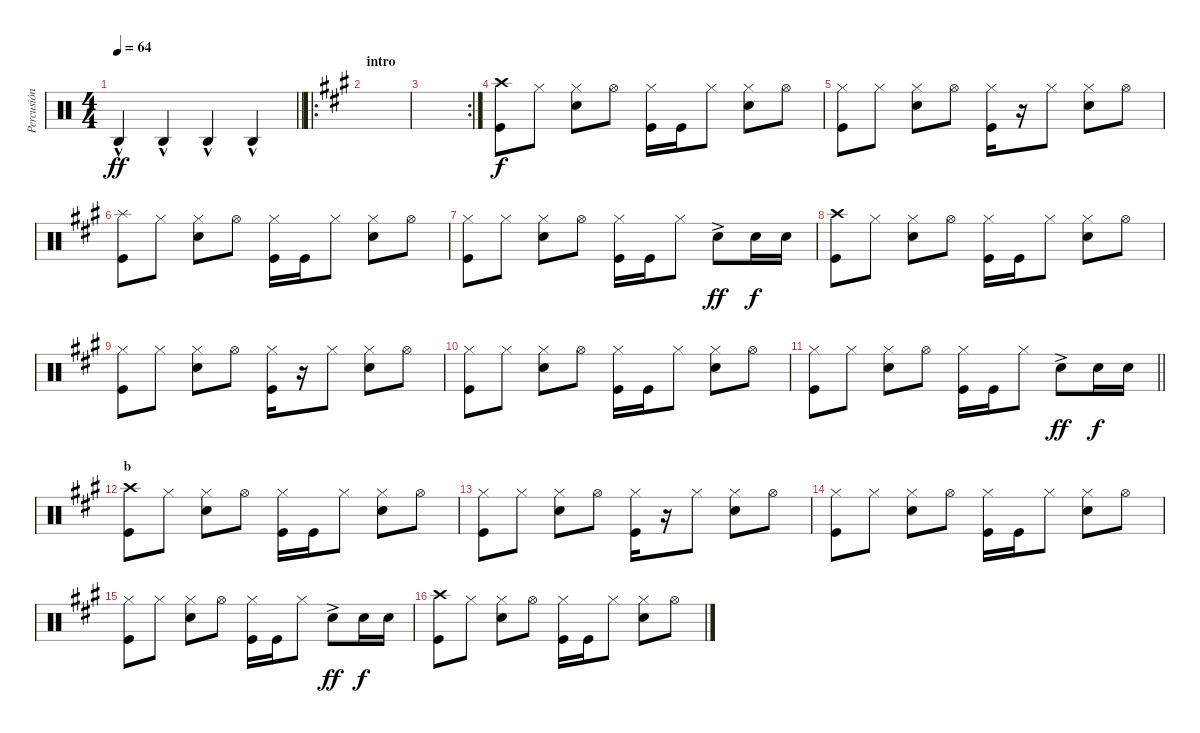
\track ("Percusión" "Percusión") {instrument percussion}
\staff {score}
\articulation defaults
\ts (4 4)
\tempo 64
\clef neutral
\barLineRight lightlight
\ks c "Agogo high (hit)"{hac}.4{dy ff} "Agogo high (hit)"{hac}.4 "Agogo high (hit)"{hac}.4 "Agogo high (hit)"{hac}.4
|
\ro
\section ("" "intro")
\ks a
|
\rc 2
|
("Kick (hit)" "Crash high (hit)").8{dy f} "Hi-Hat (closed)".8 ("Hi-Hat (closed)" "Snare (hit) 2").8 "Hi-Hat (open)".8 ("Kick (hit)" "Hi-Hat (closed)").16 "Kick (hit)".16 "Hi-Hat (closed)".8 ("Hi-Hat (closed)" "Snare (hit) 2").8 "Hi-Hat (open)".8 |
("Hi-Hat (closed)" "Kick (hit)").8 "Hi-Hat (closed)".8 ("Hi-Hat (closed)" "Snare (hit) 2").8 "Hi-Hat (open)".8 ("Kick (hit)" "Hi-Hat (closed)").16 r.16 "Hi-Hat (closed)".8 ("Hi-Hat (closed)" "Snare (hit) 2").8 "Hi-Hat (open)".8 |
("Splash (hit)" "Kick (hit)").8 "Hi-Hat (closed)".8 ("Hi-Hat (closed)" "Snare (hit) 2").8 "Hi-Hat (open)".8 ("Kick (hit)" "Hi-Hat (closed)").16 "Kick (hit)".16 "Hi-Hat (closed)".8 ("Hi-Hat (closed)" "Snare (hit) 2").8 "Hi-Hat (open)".8 |
("Hi-Hat (closed)" "Kick (hit)").8 "Hi-Hat (closed)".8 ("Hi-Hat (closed)" "Snare (hit) 2").8 "Hi-Hat (open)".8 ("Kick (hit)" "Hi-Hat (closed)").16 "Kick (hit)".16 "Hi-Hat (closed)".8 "Snare (hit) 2"{ac}.8{dy ff} "Snare (hit) 2".16{dy f} "Snare (hit) 2".16 |
("Kick (hit)" "Crash high (hit)").8 "Hi-Hat (closed)".8 ("Hi-Hat (closed)" "Snare (hit) 2").8 "Hi-Hat (open)".8 ("Kick (hit)" "Hi-Hat (closed)").16 "Kick (hit)".16 "Hi-Hat (closed)".8 ("Hi-Hat (closed)" "Snare (hit) 2").8 "Hi-Hat (open)".8 |
("Hi-Hat (closed)" "Kick (hit)").8 "Hi-Hat (closed)".8 ("Hi-Hat (closed)" "Snare (hit) 2").8 "Hi-Hat (open)".8 ("Kick (hit)" "Hi-Hat (closed)").16 r.16 "Hi-Hat (closed)".8 ("Hi-Hat (closed)" "Snare (hit) 2").8 "Hi-Hat (open)".8 |
("Hi-Hat (closed)" "Kick (hit)").8 "Hi-Hat (closed)".8 ("Hi-Hat (closed)" "Snare (hit) 2").8 "Hi-Hat (open)".8 ("Kick (hit)" "Hi-Hat (closed)").16 "Kick (hit)".16 "Hi-Hat (closed)".8 ("Hi-Hat (closed)" "Snare (hit) 2").8 "Hi-Hat (open)".8 |
\barLineRight lightlight
("Hi-Hat (closed)" "Kick (hit)").8 "Hi-Hat (closed)".8 ("Hi-Hat (closed)" "Snare (hit) 2").8 "Hi-Hat (open)".8 ("Kick (hit)" "Hi-Hat (closed)").16 "Kick (hit)".16 "Hi-Hat (closed)".8 "Snare (hit) 2"{ac}.8{dy ff} "Snare (hit) 2".16{dy f} "Snare (hit) 2".16 |
\section ("" "b")
("Kick (hit)" "Crash high (hit)").8 "Hi-Hat (closed)".8 ("Hi-Hat (closed)" "Snare (hit) 2").8 "Hi-Hat (open)".8 ("Kick (hit)" "Hi-Hat (closed)").16 "Kick (hit)".16 "Hi-Hat (closed)".8 ("Hi-Hat (closed)" "Snare (hit) 2").8 "Hi-Hat (open)".8 |
("Hi-Hat (closed)" "Kick (hit)").8 "Hi-Hat (closed)".8 ("Hi-Hat (closed)" "Snare (hit) 2").8 "Hi-Hat (open)".8 ("Kick (hit)" "Hi-Hat (closed)").16 r.16 "Hi-Hat (closed)".8 ("Hi-Hat (closed)" "Snare (hit) 2").8 "Hi-Hat (open)".8 |
("Hi-Hat (closed)" "Kick (hit)").8 "Hi-Hat (closed)".8 ("Hi-Hat (closed)" "Snare (hit) 2").8 "Hi-Hat (open)".8 ("Kick (hit)" "Hi-Hat (closed)").16 "Kick (hit)".16 "Hi-Hat (closed)".8 ("Hi-Hat (closed)" "Snare (hit) 2").8 "Hi-Hat (open)".8 |
("Hi-Hat (closed)" "Kick (hit)").8 "Hi-Hat (closed)".8 ("Hi-Hat (closed)" "Snare (hit) 2").8 "Hi-Hat (open)".8 ("Kick (hit)" "Hi-Hat (closed)").16 "Kick (hit)".16 "Hi-Hat (closed)".8 "Snare (hit) 2"{ac}.8{dy ff} "Snare (hit) 2".16{dy f} "Snare (hit) 2".16 |
("Kick (hit)" "Crash high (hit)").8 "Hi-Hat (closed)".8 ("Hi-Hat (closed)" "Snare (hit) 2").8 "Hi-Hat (open)".8 ("Kick (hit)" "Hi-Hat (closed)").16 "Kick (hit)".16 "Hi-Hat (closed)".8 ("Hi-Hat (closed)" "Snare (hit) 2").8 "Hi-Hat (open)".8
